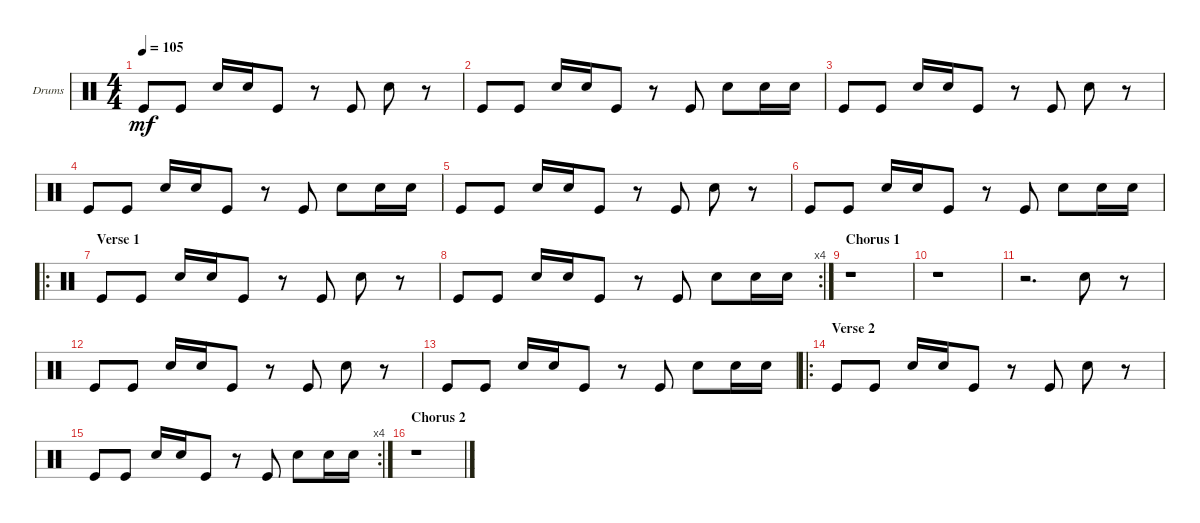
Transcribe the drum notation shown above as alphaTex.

\defaultSystemsLayout 4
\bracketExtendMode groupsimilarinstruments
\firstSystemTrackNameOrientation horizontal
\otherSystemsTrackNameOrientation horizontal
\chordDiagramsInScore
\track ("Drumkit" "Drums") {instrument percussion}
\staff {score}
\articulation defaults
\ts (4 4)
\tempo 105
\clef neutral
\ks c "Kick (hit)".8{dy mf} "Kick (hit)".8 "Snare (hit) 2".16 "Snare (hit) 2".16 "Kick (hit)".8
r.8 "Kick (hit)".8 "Snare (hit) 2".8 r.8 |
"Kick (hit)".8 "Kick (hit)".8 "Snare (hit) 2".16 "Snare (hit) 2".16 "Kick (hit)".8 r.8 "Kick (hit)".8 "Snare (hit) 2".8 "Snare (hit) 2".16 "Snare (hit) 2".16 |
"Kick (hit)".8 "Kick (hit)".8 "Snare (hit) 2".16 "Snare (hit) 2".16 "Kick (hit)".8 r.8 "Kick (hit)".8 "Snare (hit) 2".8 r.8 |
"Kick (hit)".8 "Kick (hit)".8 "Snare (hit) 2".16 "Snare (hit) 2".16 "Kick (hit)".8 r.8 "Kick (hit)".8 "Snare (hit) 2".8 "Snare (hit) 2".16 "Snare (hit) 2".16 |
"Kick (hit)".8 "Kick (hit)".8 "Snare (hit) 2".16 "Snare (hit) 2".16 "Kick (hit)".8 r.8 "Kick (hit)".8 "Snare (hit) 2".8 r.8 |
"Kick (hit)".8 "Kick (hit)".8 "Snare (hit) 2".16 "Snare (hit) 2".16 "Kick (hit)".8 r.8 "Kick (hit)".8 "Snare (hit) 2".8 "Snare (hit) 2".16 "Snare (hit) 2".16 |
\ro
\section ("" "Verse 1")
"Kick (hit)".8 "Kick (hit)".8 "Snare (hit) 2".16 "Snare (hit) 2".16 "Kick (hit)".8 r.8 "Kick (hit)".8 "Snare (hit) 2".8 r.8 |
\rc 4 "Kick (hit)".8 "Kick (hit)".8 "Snare (hit) 2".16 "Snare (hit) 2".16 "Kick (hit)".8
r.8 "Kick (hit)".8 "Snare (hit) 2".8 "Snare (hit) 2".16 "Snare (hit) 2".16 |
\section ("" "Chorus 1")
r.1 |
r.1 |
r.2{d} "Snare (hit) 2".8 r.8 |
"Kick (hit)".8 "Kick (hit)".8 "Snare (hit) 2".16 "Snare (hit) 2".16 "Kick (hit)".8 r.8 "Kick (hit)".8 "Snare (hit) 2".8 r.8 |
"Kick (hit)".8 "Kick (hit)".8 "Snare (hit) 2".16 "Snare (hit) 2".16 "Kick (hit)".8 r.8 "Kick (hit)".8 "Snare (hit) 2".8 "Snare (hit) 2".16 "Snare (hit) 2".16 |
\ro
\section ("" "Verse 2")
"Kick (hit)".8 "Kick (hit)".8 "Snare (hit) 2".16 "Snare (hit) 2".16 "Kick (hit)".8 r.8 "Kick (hit)".8 "Snare (hit) 2".8 r.8 |
\rc 4 "Kick (hit)".8 "Kick (hit)".8 "Snare (hit) 2".16 "Snare (hit) 2".16 "Kick (hit)".8
r.8 "Kick (hit)".8 "Snare (hit) 2".8 "Snare (hit) 2".16 "Snare (hit) 2".16 |
\section ("" "Chorus 2")
r.1
